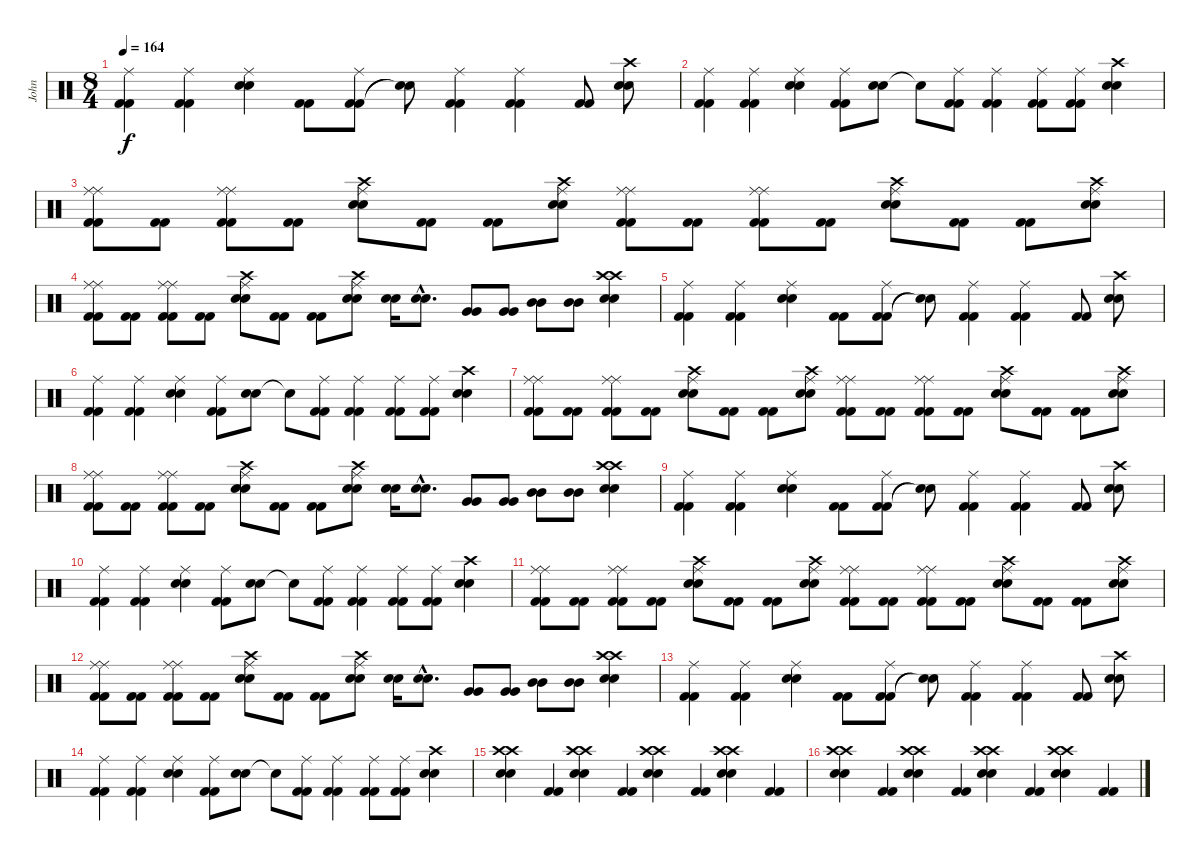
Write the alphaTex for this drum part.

\track ("John" "John") {instrument percussion}
\staff {score}
\articulation defaults
\ts (8 4)
\tempo 164
\clef neutral
\ks c
("Kick (hit) 2" "Kick (hit) 2" "Ride (middle)").4{dy f} ("Kick (hit) 2" "Kick (hit) 2" "Ride (middle)").4 ("Snare (hit) 2" "Snare (hit) 2" "Ride (middle)").4 ("Kick (hit) 2" "Kick (hit) 2").8 ("Kick (hit) 2" "Kick (hit) 2" "Ride (middle)").8 ("Snare (hit)"{t} "Snare (hit)"{t}).8 ("Kick (hit) 2" "Kick (hit) 2" "Ride (middle)").4 ("Kick (hit) 2" "Kick (hit) 2" "Ride (middle)").4 ("Kick (hit) 2" "Kick (hit) 2").8 ("Snare (hit) 2" "Snare (hit) 2" "Crash high (hit)").8 |
("Kick (hit) 2" "Kick (hit) 2" "Ride (middle)").4 ("Kick (hit) 2" "Kick (hit) 2" "Ride (middle)").4 ("Snare (hit) 2" "Snare (hit) 2" "Ride (middle)").4 ("Kick (hit) 2" "Kick (hit) 2" "Ride (middle)").8 ("Snare (hit) 2" "Snare (hit) 2").8 "Snare (hit)"{t}.8 ("Kick (hit) 2" "Kick (hit) 2" "Ride (middle)").8 ("Kick (hit) 2" "Kick (hit) 2" "Ride (middle)").4 ("Kick (hit) 2" "Kick (hit) 2" "Ride (middle)").8 ("Kick (hit) 2" "Kick (hit) 2" "Ride (middle)").8 ("Snare (hit) 2" "Snare (hit) 2" "Crash high (hit)").4 |
("Kick (hit) 2" "Kick (hit) 2" "Ride (middle)" "Ride (middle)").8 ("Kick (hit) 2" "Kick (hit) 2").8 ("Kick (hit) 2" "Kick (hit) 2" "Ride (middle)" "Ride (middle)").8 ("Kick (hit) 2" "Kick (hit) 2").8 ("Snare (hit) 2" "Snare (hit) 2" "Crash high (hit)" "Ride (middle)").8 ("Kick (hit) 2" "Kick (hit) 2").8 ("Kick (hit) 2" "Kick (hit) 2").8 ("Snare (hit) 2" "Snare (hit) 2" "Crash high (hit)" "Ride (middle)").8 ("Kick (hit) 2" "Kick (hit) 2" "Ride (middle)" "Ride (middle)").8 ("Kick (hit) 2" "Kick (hit) 2").8 ("Kick (hit) 2" "Kick (hit) 2" "Ride (middle)" "Ride (middle)").8 ("Kick (hit) 2" "Kick (hit) 2").8 ("Snare (hit) 2" "Snare (hit) 2" "Crash high (hit)" "Ride (middle)").8 ("Kick (hit) 2" "Kick (hit) 2").8 ("Kick (hit) 2" "Kick (hit) 2").8 ("Snare (hit) 2" "Snare (hit) 2" "Crash high (hit)" "Ride (middle)").8 |
("Kick (hit) 2" "Kick (hit) 2" "Ride (middle)" "Ride (middle)").8 ("Kick (hit) 2" "Kick (hit) 2").8 ("Kick (hit) 2" "Kick (hit) 2" "Ride (middle)" "Ride (middle)").8 ("Kick (hit) 2" "Kick (hit) 2").8 ("Snare (hit) 2" "Snare (hit) 2" "Crash high (hit)" "Ride (middle)").8 ("Kick (hit) 2" "Kick (hit) 2").8 ("Kick (hit) 2" "Kick (hit) 2").8 ("Snare (hit) 2" "Snare (hit) 2" "Crash high (hit)" "Ride (middle)").8 ("Snare (hit) 2" "Snare (hit) 2").16 ("Snare (hit) 2"{hac} "Snare (hit) 2"{hac}).8{d} ("Very Low Tom (hit)" "Very Low Tom (hit)").8 ("Very Low Tom (hit)" "Very Low Tom (hit)").8 ("Mid Tom (hit)" "Mid Tom (hit)").8 ("Mid Tom (hit)" "Mid Tom (hit)").8 ("Snare (hit) 2" "Snare (hit) 2" "Crash high (hit)" "Crash high (hit)").4 |
("Kick (hit) 2" "Kick (hit) 2" "Ride (middle)").4 ("Kick (hit) 2" "Kick (hit) 2" "Ride (middle)").4 ("Snare (hit) 2" "Snare (hit) 2" "Ride (middle)").4 ("Kick (hit) 2" "Kick (hit) 2").8 ("Kick (hit) 2" "Kick (hit) 2" "Ride (middle)").8 ("Snare (hit)"{t} "Snare (hit)"{t}).8 ("Kick (hit) 2" "Kick (hit) 2" "Ride (middle)").4 ("Kick (hit) 2" "Kick (hit) 2" "Ride (middle)").4 ("Kick (hit) 2" "Kick (hit) 2").8 ("Snare (hit) 2" "Snare (hit) 2" "Crash high (hit)").8 |
("Kick (hit) 2" "Kick (hit) 2" "Ride (middle)").4 ("Kick (hit) 2" "Kick (hit) 2" "Ride (middle)").4 ("Snare (hit) 2" "Snare (hit) 2" "Ride (middle)").4 ("Kick (hit) 2" "Kick (hit) 2" "Ride (middle)").8 ("Snare (hit) 2" "Snare (hit) 2").8 "Snare (hit)"{t}.8 ("Kick (hit) 2" "Kick (hit) 2" "Ride (middle)").8 ("Kick (hit) 2" "Kick (hit) 2" "Ride (middle)").4 ("Kick (hit) 2" "Kick (hit) 2" "Ride (middle)").8 ("Kick (hit) 2" "Kick (hit) 2" "Ride (middle)").8 ("Snare (hit) 2" "Snare (hit) 2" "Crash high (hit)").4 |
("Kick (hit) 2" "Kick (hit) 2" "Ride (middle)" "Ride (middle)").8 ("Kick (hit) 2" "Kick (hit) 2").8 ("Kick (hit) 2" "Kick (hit) 2" "Ride (middle)" "Ride (middle)").8 ("Kick (hit) 2" "Kick (hit) 2").8 ("Snare (hit) 2" "Snare (hit) 2" "Crash high (hit)" "Ride (middle)").8 ("Kick (hit) 2" "Kick (hit) 2").8 ("Kick (hit) 2" "Kick (hit) 2").8 ("Snare (hit) 2" "Snare (hit) 2" "Crash high (hit)" "Ride (middle)").8 ("Kick (hit) 2" "Kick (hit) 2" "Ride (middle)" "Ride (middle)").8 ("Kick (hit) 2" "Kick (hit) 2").8 ("Kick (hit) 2" "Kick (hit) 2" "Ride (middle)" "Ride (middle)").8 ("Kick (hit) 2" "Kick (hit) 2").8 ("Snare (hit) 2" "Snare (hit) 2" "Crash high (hit)" "Ride (middle)").8 ("Kick (hit) 2" "Kick (hit) 2").8 ("Kick (hit) 2" "Kick (hit) 2").8 ("Snare (hit) 2" "Snare (hit) 2" "Crash high (hit)" "Ride (middle)").8 |
("Kick (hit) 2" "Kick (hit) 2" "Ride (middle)" "Ride (middle)").8 ("Kick (hit) 2" "Kick (hit) 2").8 ("Kick (hit) 2" "Kick (hit) 2" "Ride (middle)" "Ride (middle)").8 ("Kick (hit) 2" "Kick (hit) 2").8 ("Snare (hit) 2" "Snare (hit) 2" "Crash high (hit)" "Ride (middle)").8 ("Kick (hit) 2" "Kick (hit) 2").8 ("Kick (hit) 2" "Kick (hit) 2").8 ("Snare (hit) 2" "Snare (hit) 2" "Crash high (hit)" "Ride (middle)").8 ("Snare (hit) 2" "Snare (hit) 2").16 ("Snare (hit) 2"{hac} "Snare (hit) 2"{hac}).8{d} ("Very Low Tom (hit)" "Very Low Tom (hit)").8 ("Very Low Tom (hit)" "Very Low Tom (hit)").8 ("Mid Tom (hit)" "Mid Tom (hit)").8 ("Mid Tom (hit)" "Mid Tom (hit)").8 ("Snare (hit) 2" "Snare (hit) 2" "Crash high (hit)" "Crash high (hit)").4 |
("Kick (hit) 2" "Kick (hit) 2" "Ride (middle)").4 ("Kick (hit) 2" "Kick (hit) 2" "Ride (middle)").4 ("Snare (hit) 2" "Snare (hit) 2" "Ride (middle)").4 ("Kick (hit) 2" "Kick (hit) 2").8 ("Kick (hit) 2" "Kick (hit) 2" "Ride (middle)").8 ("Snare (hit)"{t} "Snare (hit)"{t}).8 ("Kick (hit) 2" "Kick (hit) 2" "Ride (middle)").4 ("Kick (hit) 2" "Kick (hit) 2" "Ride (middle)").4 ("Kick (hit) 2" "Kick (hit) 2").8 ("Snare (hit) 2" "Snare (hit) 2" "Crash high (hit)").8 |
("Kick (hit) 2" "Kick (hit) 2" "Ride (middle)").4 ("Kick (hit) 2" "Kick (hit) 2" "Ride (middle)").4 ("Snare (hit) 2" "Snare (hit) 2" "Ride (middle)").4 ("Kick (hit) 2" "Kick (hit) 2" "Ride (middle)").8 ("Snare (hit) 2" "Snare (hit) 2").8 "Snare (hit)"{t}.8 ("Kick (hit) 2" "Kick (hit) 2" "Ride (middle)").8 ("Kick (hit) 2" "Kick (hit) 2" "Ride (middle)").4 ("Kick (hit) 2" "Kick (hit) 2" "Ride (middle)").8 ("Kick (hit) 2" "Kick (hit) 2" "Ride (middle)").8 ("Snare (hit) 2" "Snare (hit) 2" "Crash high (hit)").4 |
("Kick (hit) 2" "Kick (hit) 2" "Ride (middle)" "Ride (middle)").8 ("Kick (hit) 2" "Kick (hit) 2").8 ("Kick (hit) 2" "Kick (hit) 2" "Ride (middle)" "Ride (middle)").8 ("Kick (hit) 2" "Kick (hit) 2").8 ("Snare (hit) 2" "Snare (hit) 2" "Crash high (hit)" "Ride (middle)").8 ("Kick (hit) 2" "Kick (hit) 2").8 ("Kick (hit) 2" "Kick (hit) 2").8 ("Snare (hit) 2" "Snare (hit) 2" "Crash high (hit)" "Ride (middle)").8 ("Kick (hit) 2" "Kick (hit) 2" "Ride (middle)" "Ride (middle)").8 ("Kick (hit) 2" "Kick (hit) 2").8 ("Kick (hit) 2" "Kick (hit) 2" "Ride (middle)" "Ride (middle)").8 ("Kick (hit) 2" "Kick (hit) 2").8 ("Snare (hit) 2" "Snare (hit) 2" "Crash high (hit)" "Ride (middle)").8 ("Kick (hit) 2" "Kick (hit) 2").8 ("Kick (hit) 2" "Kick (hit) 2").8 ("Snare (hit) 2" "Snare (hit) 2" "Crash high (hit)" "Ride (middle)").8 |
("Kick (hit) 2" "Kick (hit) 2" "Ride (middle)" "Ride (middle)").8 ("Kick (hit) 2" "Kick (hit) 2").8 ("Kick (hit) 2" "Kick (hit) 2" "Ride (middle)" "Ride (middle)").8 ("Kick (hit) 2" "Kick (hit) 2").8 ("Snare (hit) 2" "Snare (hit) 2" "Crash high (hit)" "Ride (middle)").8 ("Kick (hit) 2" "Kick (hit) 2").8 ("Kick (hit) 2" "Kick (hit) 2").8 ("Snare (hit) 2" "Snare (hit) 2" "Crash high (hit)" "Ride (middle)").8 ("Snare (hit) 2" "Snare (hit) 2").16 ("Snare (hit) 2"{hac} "Snare (hit) 2"{hac}).8{d} ("Very Low Tom (hit)" "Very Low Tom (hit)").8 ("Very Low Tom (hit)" "Very Low Tom (hit)").8 ("Mid Tom (hit)" "Mid Tom (hit)").8 ("Mid Tom (hit)" "Mid Tom (hit)").8 ("Snare (hit) 2" "Snare (hit) 2" "Crash high (hit)" "Crash high (hit)").4 |
("Kick (hit) 2" "Kick (hit) 2" "Ride (middle)").4 ("Kick (hit) 2" "Kick (hit) 2" "Ride (middle)").4 ("Snare (hit) 2" "Snare (hit) 2" "Ride (middle)").4 ("Kick (hit) 2" "Kick (hit) 2").8 ("Kick (hit) 2" "Kick (hit) 2" "Ride (middle)").8 ("Snare (hit)"{t} "Snare (hit)"{t}).8 ("Kick (hit) 2" "Kick (hit) 2" "Ride (middle)").4 ("Kick (hit) 2" "Kick (hit) 2" "Ride (middle)").4 ("Kick (hit) 2" "Kick (hit) 2").8 ("Snare (hit) 2" "Snare (hit) 2" "Crash high (hit)").8 |
("Kick (hit) 2" "Kick (hit) 2" "Ride (middle)").4 ("Kick (hit) 2" "Kick (hit) 2" "Ride (middle)").4 ("Snare (hit) 2" "Snare (hit) 2" "Ride (middle)").4 ("Kick (hit) 2" "Kick (hit) 2" "Ride (middle)").8 ("Snare (hit) 2" "Snare (hit) 2").8 "Snare (hit)"{t}.8 ("Kick (hit) 2" "Kick (hit) 2" "Ride (middle)").8 ("Kick (hit) 2" "Kick (hit) 2" "Ride (middle)").4 ("Kick (hit) 2" "Kick (hit) 2" "Ride (middle)").8 ("Kick (hit) 2" "Kick (hit) 2" "Ride (middle)").8 ("Snare (hit) 2" "Snare (hit) 2" "Crash high (hit)").4 |
("Snare (hit) 2" "Snare (hit) 2" "Crash high (hit)" "Crash high (hit)").4 ("Kick (hit) 2" "Kick (hit) 2").4 ("Snare (hit) 2" "Snare (hit) 2" "Crash high (hit)" "Crash high (hit)").4 ("Kick (hit) 2" "Kick (hit) 2").4 ("Snare (hit) 2" "Snare (hit) 2" "Crash high (hit)" "Crash high (hit)").4 ("Kick (hit) 2" "Kick (hit) 2").4 ("Snare (hit) 2" "Snare (hit) 2" "Crash high (hit)" "Crash high (hit)").4 ("Kick (hit) 2" "Kick (hit) 2").4 |
("Snare (hit) 2" "Snare (hit) 2" "Crash high (hit)" "Crash high (hit)").4 ("Kick (hit) 2" "Kick (hit) 2").4 ("Snare (hit) 2" "Snare (hit) 2" "Crash high (hit)" "Crash high (hit)").4 ("Kick (hit) 2" "Kick (hit) 2").4 ("Snare (hit) 2" "Snare (hit) 2" "Crash high (hit)" "Crash high (hit)").4 ("Kick (hit) 2" "Kick (hit) 2").4 ("Snare (hit) 2" "Snare (hit) 2" "Crash high (hit)" "Crash high (hit)").4 ("Kick (hit) 2" "Kick (hit) 2").4
